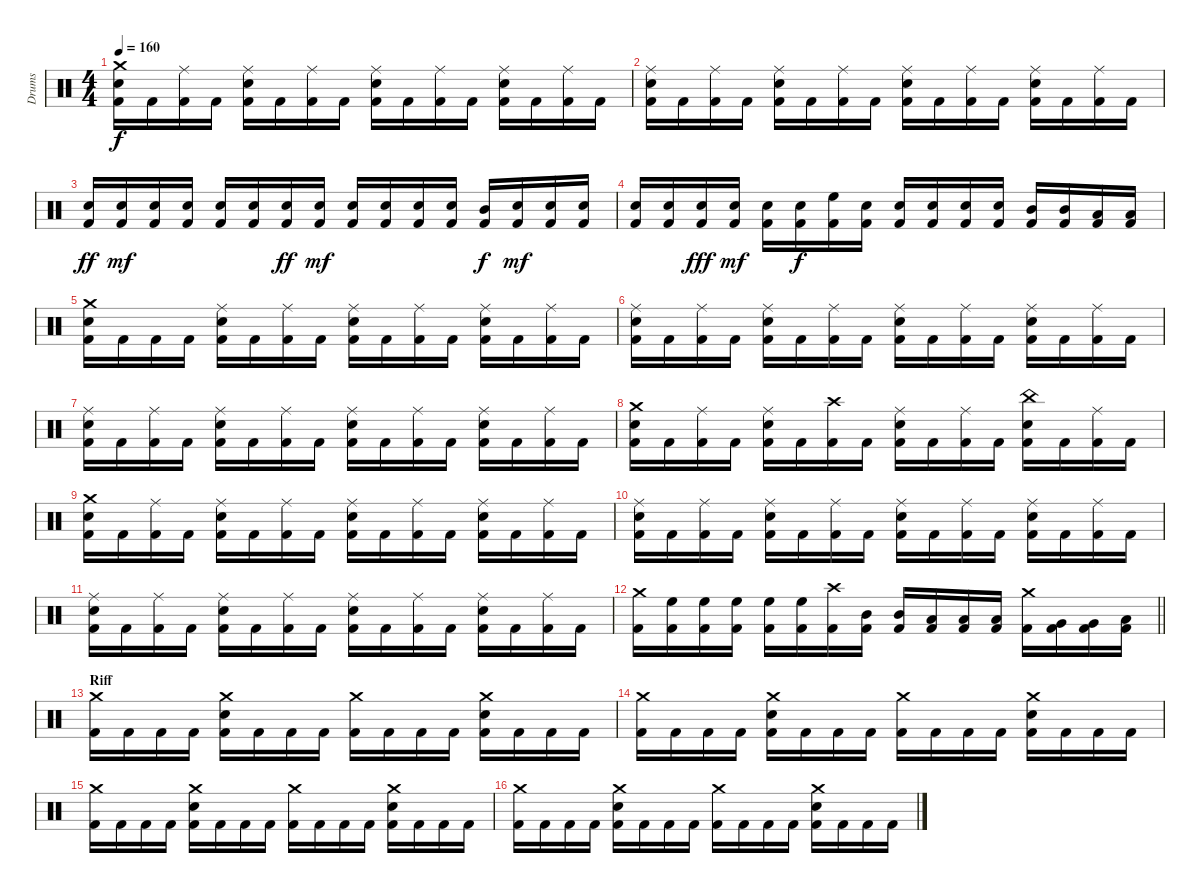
\track ("Drums" "Drums") {instrument percussion}
\staff {score}
\articulation defaults
\ts (4 4)
\tempo 160
\clef neutral
\ks c
("Crash medium (hit)" "Snare (hit) 2" "Kick (hit) 2").16{dy f} "Kick (hit) 2".16 ("Ride (middle)" "Kick (hit) 2").16 "Kick (hit) 2".16 ("Ride (middle)" "Snare (hit) 2" "Kick (hit) 2").16 "Kick (hit) 2".16 ("Ride (middle)" "Kick (hit) 2").16 "Kick (hit) 2".16 ("Ride (middle)" "Snare (hit) 2" "Kick (hit) 2").16 "Kick (hit) 2".16 ("Ride (middle)" "Kick (hit) 2").16 "Kick (hit) 2".16 ("Ride (middle)" "Snare (hit) 2" "Kick (hit) 2").16 "Kick (hit) 2".16 ("Ride (middle)" "Kick (hit) 2").16 "Kick (hit) 2".16 |
("Ride (middle)" "Snare (hit) 2" "Kick (hit) 2").16 "Kick (hit) 2".16 ("Ride (middle)" "Kick (hit) 2").16 "Kick (hit) 2".16 ("Ride (middle)" "Snare (hit) 2" "Kick (hit) 2").16 "Kick (hit) 2".16 ("Ride (middle)" "Kick (hit) 2").16 "Kick (hit) 2".16 ("Ride (middle)" "Snare (hit) 2" "Kick (hit) 2").16 "Kick (hit) 2".16 ("Ride (middle)" "Kick (hit) 2").16 "Kick (hit) 2".16 ("Ride (middle)" "Snare (hit) 2" "Kick (hit) 2").16 "Kick (hit) 2".16 ("Ride (middle)" "Kick (hit) 2").16 "Kick (hit) 2".16 |
("Snare (hit) 2" "Kick (hit) 2").16{dy ff} ("Snare (hit) 2" "Kick (hit) 2").16{dy mf} ("Snare (hit) 2" "Kick (hit) 2").16 ("Snare (hit) 2" "Kick (hit) 2").16 ("Snare (hit) 2" "Kick (hit) 2").16 ("Snare (hit) 2" "Kick (hit) 2").16 ("Snare (hit) 2" "Kick (hit) 2").16{dy ff} ("Snare (hit) 2" "Kick (hit) 2").16{dy mf} ("Snare (hit) 2" "Kick (hit) 2").16 ("Snare (hit) 2" "Kick (hit) 2").16 ("Snare (hit) 2" "Kick (hit) 2").16 ("Snare (hit) 2" "Kick (hit) 2").16 ("Mid Tom (hit)" "Kick (hit) 2").16{dy f} ("Snare (hit) 2" "Kick (hit) 2").16{dy mf} ("Snare (hit) 2" "Kick (hit) 2").16 ("Snare (hit) 2" "Kick (hit) 2").16 |
("Snare (hit) 2" "Kick (hit) 2").16 ("Snare (hit) 2" "Kick (hit) 2").16 ("Snare (hit) 2" "Kick (hit) 2").16{dy fff} ("Snare (hit) 2" "Kick (hit) 2").16{dy mf} ("Snare (hit) 2" "Kick (hit) 2").16 ("Snare (hit) 2" "Kick (hit) 2").16{dy f} ("High Floor Tom (hit)" "Kick (hit) 2").16 ("Snare (hit) 2" "Kick (hit) 2").16 ("Snare (hit) 2" "Kick (hit) 2").16 ("Snare (hit) 2" "Kick (hit) 2").16 ("Snare (hit) 2" "Kick (hit) 2").16 ("Snare (hit) 2" "Kick (hit) 2").16 ("Mid Tom (hit)" "Kick (hit) 2").16 ("Mid Tom (hit)" "Kick (hit) 2").16 ("Low Tom (hit)" "Kick (hit) 2").16 ("Low Tom (hit)" "Kick (hit) 2").16 |
("Crash medium (hit)" "Snare (hit) 2" "Kick (hit) 2").16 "Kick (hit) 2".16 "Kick (hit) 2".16 "Kick (hit) 2".16 ("Ride (middle)" "Snare (hit) 2" "Kick (hit) 2").16 "Kick (hit) 2".16 ("Ride (middle)" "Kick (hit) 2").16 "Kick (hit) 2".16 ("Ride (middle)" "Snare (hit) 2" "Kick (hit) 2").16 "Kick (hit) 2".16 ("Ride (middle)" "Kick (hit) 2").16 "Kick (hit) 2".16 ("Ride (middle)" "Snare (hit) 2" "Kick (hit) 2").16 "Kick (hit) 2".16 ("Ride (middle)" "Kick (hit) 2").16 "Kick (hit) 2".16 |
("Ride (middle)" "Snare (hit) 2" "Kick (hit) 2").16 "Kick (hit) 2".16 ("Ride (middle)" "Kick (hit) 2").16 "Kick (hit) 2".16 ("Ride (middle)" "Snare (hit) 2" "Kick (hit) 2").16 "Kick (hit) 2".16 ("Ride (middle)" "Kick (hit) 2").16 "Kick (hit) 2".16 ("Ride (middle)" "Snare (hit) 2" "Kick (hit) 2").16 "Kick (hit) 2".16 ("Ride (middle)" "Kick (hit) 2").16 "Kick (hit) 2".16 ("Ride (middle)" "Snare (hit) 2" "Kick (hit) 2").16 "Kick (hit) 2".16 ("Ride (middle)" "Kick (hit) 2").16 "Kick (hit) 2".16 |
("Ride (middle)" "Snare (hit) 2" "Kick (hit) 2").16 "Kick (hit) 2".16 ("Ride (middle)" "Kick (hit) 2").16 "Kick (hit) 2".16 ("Ride (middle)" "Snare (hit) 2" "Kick (hit) 2").16 "Kick (hit) 2".16 ("Ride (middle)" "Kick (hit) 2").16 "Kick (hit) 2".16 ("Ride (middle)" "Snare (hit) 2" "Kick (hit) 2").16 "Kick (hit) 2".16 ("Ride (middle)" "Kick (hit) 2").16 "Kick (hit) 2".16 ("Ride (middle)" "Snare (hit) 2" "Kick (hit) 2").16 "Kick (hit) 2".16 ("Ride (middle)" "Kick (hit) 2").16 "Kick (hit) 2".16 |
("Crash medium (hit)" "Snare (hit) 2" "Kick (hit) 2").16 "Kick (hit) 2".16 ("Ride (middle)" "Kick (hit) 2").16 "Kick (hit) 2".16 ("Ride (middle)" "Snare (hit) 2" "Kick (hit) 2").16 "Kick (hit) 2".16 ("Crash high (hit)" "Kick (hit) 2").16 "Kick (hit) 2".16 ("Ride (middle)" "Snare (hit) 2" "Kick (hit) 2").16 "Kick (hit) 2".16 ("Ride (middle)" "Kick (hit) 2").16 "Kick (hit) 2".16 ("China (hit)" "Snare (hit) 2" "Kick (hit) 2").16 "Kick (hit) 2".16 ("Ride (middle)" "Kick (hit) 2").16 "Kick (hit) 2".16 |
("Crash medium (hit)" "Snare (hit) 2" "Kick (hit) 2").16 "Kick (hit) 2".16 ("Ride (middle)" "Kick (hit) 2").16 "Kick (hit) 2".16 ("Ride (middle)" "Snare (hit) 2" "Kick (hit) 2").16 "Kick (hit) 2".16 ("Ride (middle)" "Kick (hit) 2").16 "Kick (hit) 2".16 ("Ride (middle)" "Snare (hit) 2" "Kick (hit) 2").16 "Kick (hit) 2".16 ("Ride (middle)" "Kick (hit) 2").16 "Kick (hit) 2".16 ("Ride (middle)" "Snare (hit) 2" "Kick (hit) 2").16 "Kick (hit) 2".16 ("Ride (middle)" "Kick (hit) 2").16 "Kick (hit) 2".16 |
("Ride (middle)" "Snare (hit) 2" "Kick (hit) 2").16 "Kick (hit) 2".16 ("Ride (middle)" "Kick (hit) 2").16 "Kick (hit) 2".16 ("Ride (middle)" "Snare (hit) 2" "Kick (hit) 2").16 "Kick (hit) 2".16 ("Ride (middle)" "Kick (hit) 2").16 "Kick (hit) 2".16 ("Ride (middle)" "Snare (hit) 2" "Kick (hit) 2").16 "Kick (hit) 2".16 ("Ride (middle)" "Kick (hit) 2").16 "Kick (hit) 2".16 ("Ride (middle)" "Snare (hit) 2" "Kick (hit) 2").16 "Kick (hit) 2".16 ("Ride (middle)" "Kick (hit) 2").16 "Kick (hit) 2".16 |
("Ride (middle)" "Snare (hit) 2" "Kick (hit) 2").16 "Kick (hit) 2".16 ("Ride (middle)" "Kick (hit) 2").16 "Kick (hit) 2".16 ("Ride (middle)" "Snare (hit) 2" "Kick (hit) 2").16 "Kick (hit) 2".16 ("Ride (middle)" "Kick (hit) 2").16 "Kick (hit) 2".16 ("Ride (middle)" "Snare (hit) 2" "Kick (hit) 2").16 "Kick (hit) 2".16 ("Ride (middle)" "Kick (hit) 2").16 "Kick (hit) 2".16 ("Ride (middle)" "Snare (hit) 2" "Kick (hit) 2").16 "Kick (hit) 2".16 ("Ride (middle)" "Kick (hit) 2").16 "Kick (hit) 2".16 |
\barLineRight lightlight
("Crash medium (hit)" "Kick (hit) 2").16 ("High Floor Tom (hit)" "Kick (hit) 2").16 ("High Floor Tom (hit)" "Kick (hit) 2").16 ("High Floor Tom (hit)" "Kick (hit) 2").16 ("High Floor Tom (hit)" "Kick (hit) 2").16 ("High Floor Tom (hit)" "Kick (hit) 2").16 ("Crash high (hit)" "Kick (hit) 2").16 ("Mid Tom (hit)" "Kick (hit) 2").16 ("Mid Tom (hit)" "Kick (hit) 2").16 ("Low Tom (hit)" "Kick (hit) 2").16 ("Low Tom (hit)" "Kick (hit) 2").16 ("Low Tom (hit)" "Kick (hit) 2").16 ("Crash medium (hit)" "Kick (hit) 2").16 ("Very Low Tom (hit)" "Kick (hit) 2").16 ("Very Low Tom (hit)" "Kick (hit) 2").16 ("Low Floor Tom (hit)" "Kick (hit) 2").16 |
\section ("" "Riff")
("Crash medium (hit)" "Kick (hit) 2").16 "Kick (hit) 2".16 "Kick (hit) 2".16 "Kick (hit) 2".16 ("Crash medium (hit)" "Snare (hit) 2" "Kick (hit) 2").16 "Kick (hit) 2".16 "Kick (hit) 2".16 "Kick (hit) 2".16 ("Crash medium (hit)" "Kick (hit) 2").16 "Kick (hit) 2".16 "Kick (hit) 2".16 "Kick (hit) 2".16 ("Crash medium (hit)" "Snare (hit) 2" "Kick (hit) 2").16 "Kick (hit) 2".16 "Kick (hit) 2".16 "Kick (hit) 2".16 |
("Crash medium (hit)" "Kick (hit) 2").16 "Kick (hit) 2".16 "Kick (hit) 2".16 "Kick (hit) 2".16 ("Crash medium (hit)" "Snare (hit) 2" "Kick (hit) 2").16 "Kick (hit) 2".16 "Kick (hit) 2".16 "Kick (hit) 2".16 ("Crash medium (hit)" "Kick (hit) 2").16 "Kick (hit) 2".16 "Kick (hit) 2".16 "Kick (hit) 2".16 ("Crash medium (hit)" "Snare (hit) 2" "Kick (hit) 2").16 "Kick (hit) 2".16 "Kick (hit) 2".16 "Kick (hit) 2".16 |
("Crash medium (hit)" "Kick (hit) 2").16 "Kick (hit) 2".16 "Kick (hit) 2".16 "Kick (hit) 2".16 ("Crash medium (hit)" "Snare (hit) 2" "Kick (hit) 2").16 "Kick (hit) 2".16 "Kick (hit) 2".16 "Kick (hit) 2".16 ("Crash medium (hit)" "Kick (hit) 2").16 "Kick (hit) 2".16 "Kick (hit) 2".16 "Kick (hit) 2".16 ("Crash medium (hit)" "Snare (hit) 2" "Kick (hit) 2").16 "Kick (hit) 2".16 "Kick (hit) 2".16 "Kick (hit) 2".16 |
("Crash medium (hit)" "Kick (hit) 2").16 "Kick (hit) 2".16 "Kick (hit) 2".16 "Kick (hit) 2".16 ("Crash medium (hit)" "Snare (hit) 2" "Kick (hit) 2").16 "Kick (hit) 2".16 "Kick (hit) 2".16 "Kick (hit) 2".16 ("Crash medium (hit)" "Kick (hit) 2").16 "Kick (hit) 2".16 "Kick (hit) 2".16 "Kick (hit) 2".16 ("Crash medium (hit)" "Snare (hit) 2" "Kick (hit) 2").16 "Kick (hit) 2".16 "Kick (hit) 2".16 "Kick (hit) 2".16
